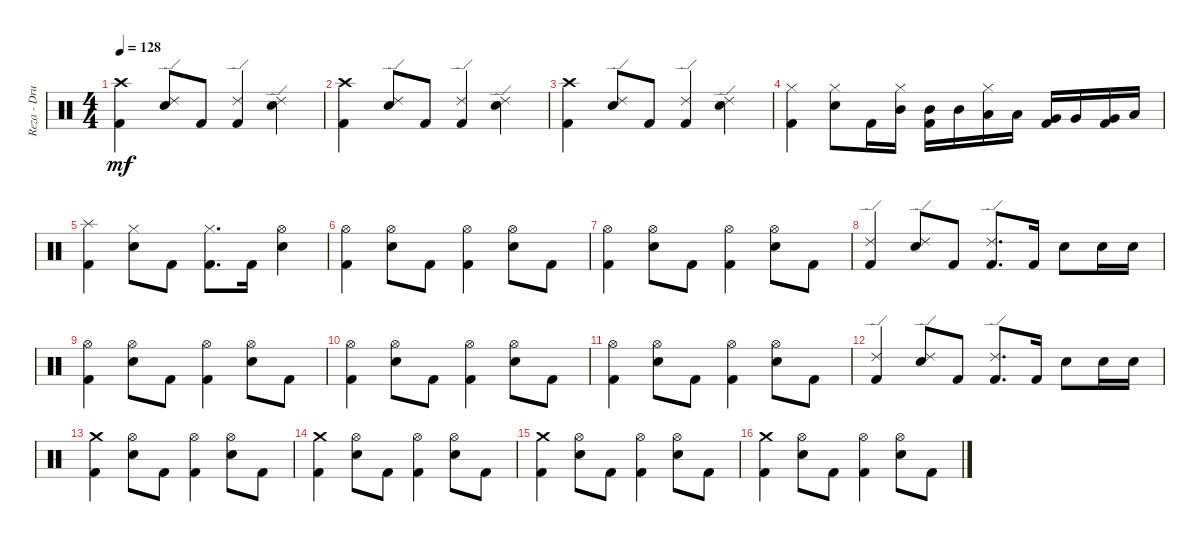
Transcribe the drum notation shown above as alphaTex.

\track ("Reza - Drum" "Reza - Dru") {instrument percussion}
\staff {score}
\articulation defaults
\ts (4 4)
\tempo 128
\clef neutral
\ks c
("Crash high (hit)" "Kick (hit) 2").4{dy mf} ("Ride (edge) 2" "Electric Snare (hit)").8 "Kick (hit) 2".8 ("Ride (edge) 2" "Kick (hit) 2").4 ("Ride (edge) 2" "Electric Snare (hit)").4 |
("Crash high (hit)" "Kick (hit) 2").4 ("Ride (edge) 2" "Electric Snare (hit)").8 "Kick (hit) 2".8 ("Ride (edge) 2" "Kick (hit) 2").4 ("Ride (edge) 2" "Electric Snare (hit)").4 |
("Crash high (hit)" "Kick (hit) 2").4 ("Ride (edge) 2" "Electric Snare (hit)").8 "Kick (hit) 2".8 ("Ride (edge) 2" "Kick (hit) 2").4 ("Ride (edge) 2" "Electric Snare (hit)").4 |
("Hi-Hat (closed)" "Kick (hit) 2").4 ("Hi-Hat (closed)" "Electric Snare (hit)").8 "Kick (hit) 2".16 ("Hi-Hat (closed)" "Mid Tom (hit)").16 ("Mid Tom (hit)" "Kick (hit) 2").16 "Mid Tom (hit)".16 ("Hi-Hat (closed)" "Low Tom (hit)").16 "Low Tom (hit)".16 ("Very Low Tom (hit)" "Kick (hit) 2").16 "Very Low Tom (hit)".16 ("Very Low Tom (hit)" "Kick (hit) 2").16 "Low Floor Tom (hit)".16 |
("Splash (hit)" "Kick (hit) 2").4 ("Hi-Hat (closed)" "Electric Snare (hit)").8 "Kick (hit) 2".8 ("Hi-Hat (closed)" "Kick (hit) 2").8{d} "Kick (hit) 2".16 ("Hi-Hat (open)" "Electric Snare (hit)").4 |
("Hi-Hat (open)" "Kick (hit) 2").4 ("Hi-Hat (open)" "Electric Snare (hit)").8 "Kick (hit) 2".8 ("Hi-Hat (open)" "Kick (hit) 2").4 ("Hi-Hat (open)" "Electric Snare (hit)").8 "Kick (hit) 2".8 |
("Hi-Hat (open)" "Kick (hit) 2").4 ("Hi-Hat (open)" "Electric Snare (hit)").8 "Kick (hit) 2".8 ("Hi-Hat (open)" "Kick (hit) 2").4 ("Hi-Hat (open)" "Electric Snare (hit)").8 "Kick (hit) 2".8 |
("Ride (edge) 2" "Kick (hit) 2").4 ("Ride (edge) 2" "Electric Snare (hit)").8 "Kick (hit) 2".8 ("Ride (edge) 2" "Kick (hit) 2").8{d} "Kick (hit) 2".16 "Electric Snare (hit)".8 "Electric Snare (hit)".16 "Electric Snare (hit)".16 |
("Hi-Hat (open)" "Kick (hit) 2").4 ("Hi-Hat (open)" "Electric Snare (hit)").8 "Kick (hit) 2".8 ("Hi-Hat (open)" "Kick (hit) 2").4 ("Hi-Hat (open)" "Electric Snare (hit)").8 "Kick (hit) 2".8 |
("Hi-Hat (open)" "Kick (hit) 2").4 ("Hi-Hat (open)" "Electric Snare (hit)").8 "Kick (hit) 2".8 ("Hi-Hat (open)" "Kick (hit) 2").4 ("Hi-Hat (open)" "Electric Snare (hit)").8 "Kick (hit) 2".8 |
("Hi-Hat (open)" "Kick (hit) 2").4 ("Hi-Hat (open)" "Electric Snare (hit)").8 "Kick (hit) 2".8 ("Hi-Hat (open)" "Kick (hit) 2").4 ("Hi-Hat (open)" "Electric Snare (hit)").8 "Kick (hit) 2".8 |
("Ride (edge) 2" "Kick (hit) 2").4 ("Ride (edge) 2" "Electric Snare (hit)").8 "Kick (hit) 2".8 ("Ride (edge) 2" "Kick (hit) 2").8{d} "Kick (hit) 2".16 "Electric Snare (hit)".8 "Electric Snare (hit)".16 "Electric Snare (hit)".16 |
("Crash medium (hit)" "Kick (hit) 2").4 ("Hi-Hat (open)" "Electric Snare (hit)").8 "Kick (hit) 2".8 ("Hi-Hat (open)" "Kick (hit) 2").4 ("Hi-Hat (open)" "Electric Snare (hit)").8 "Kick (hit) 2".8 |
("Crash medium (hit)" "Kick (hit) 2").4 ("Hi-Hat (open)" "Electric Snare (hit)").8 "Kick (hit) 2".8 ("Hi-Hat (open)" "Kick (hit) 2").4 ("Hi-Hat (open)" "Electric Snare (hit)").8 "Kick (hit) 2".8 |
("Crash medium (hit)" "Kick (hit) 2").4 ("Hi-Hat (open)" "Electric Snare (hit)").8 "Kick (hit) 2".8 ("Hi-Hat (open)" "Kick (hit) 2").4 ("Hi-Hat (open)" "Electric Snare (hit)").8 "Kick (hit) 2".8 |
("Crash medium (hit)" "Kick (hit) 2").4 ("Hi-Hat (open)" "Electric Snare (hit)").8 "Kick (hit) 2".8 ("Hi-Hat (open)" "Kick (hit) 2").4 ("Hi-Hat (open)" "Electric Snare (hit)").8 "Kick (hit) 2".8
